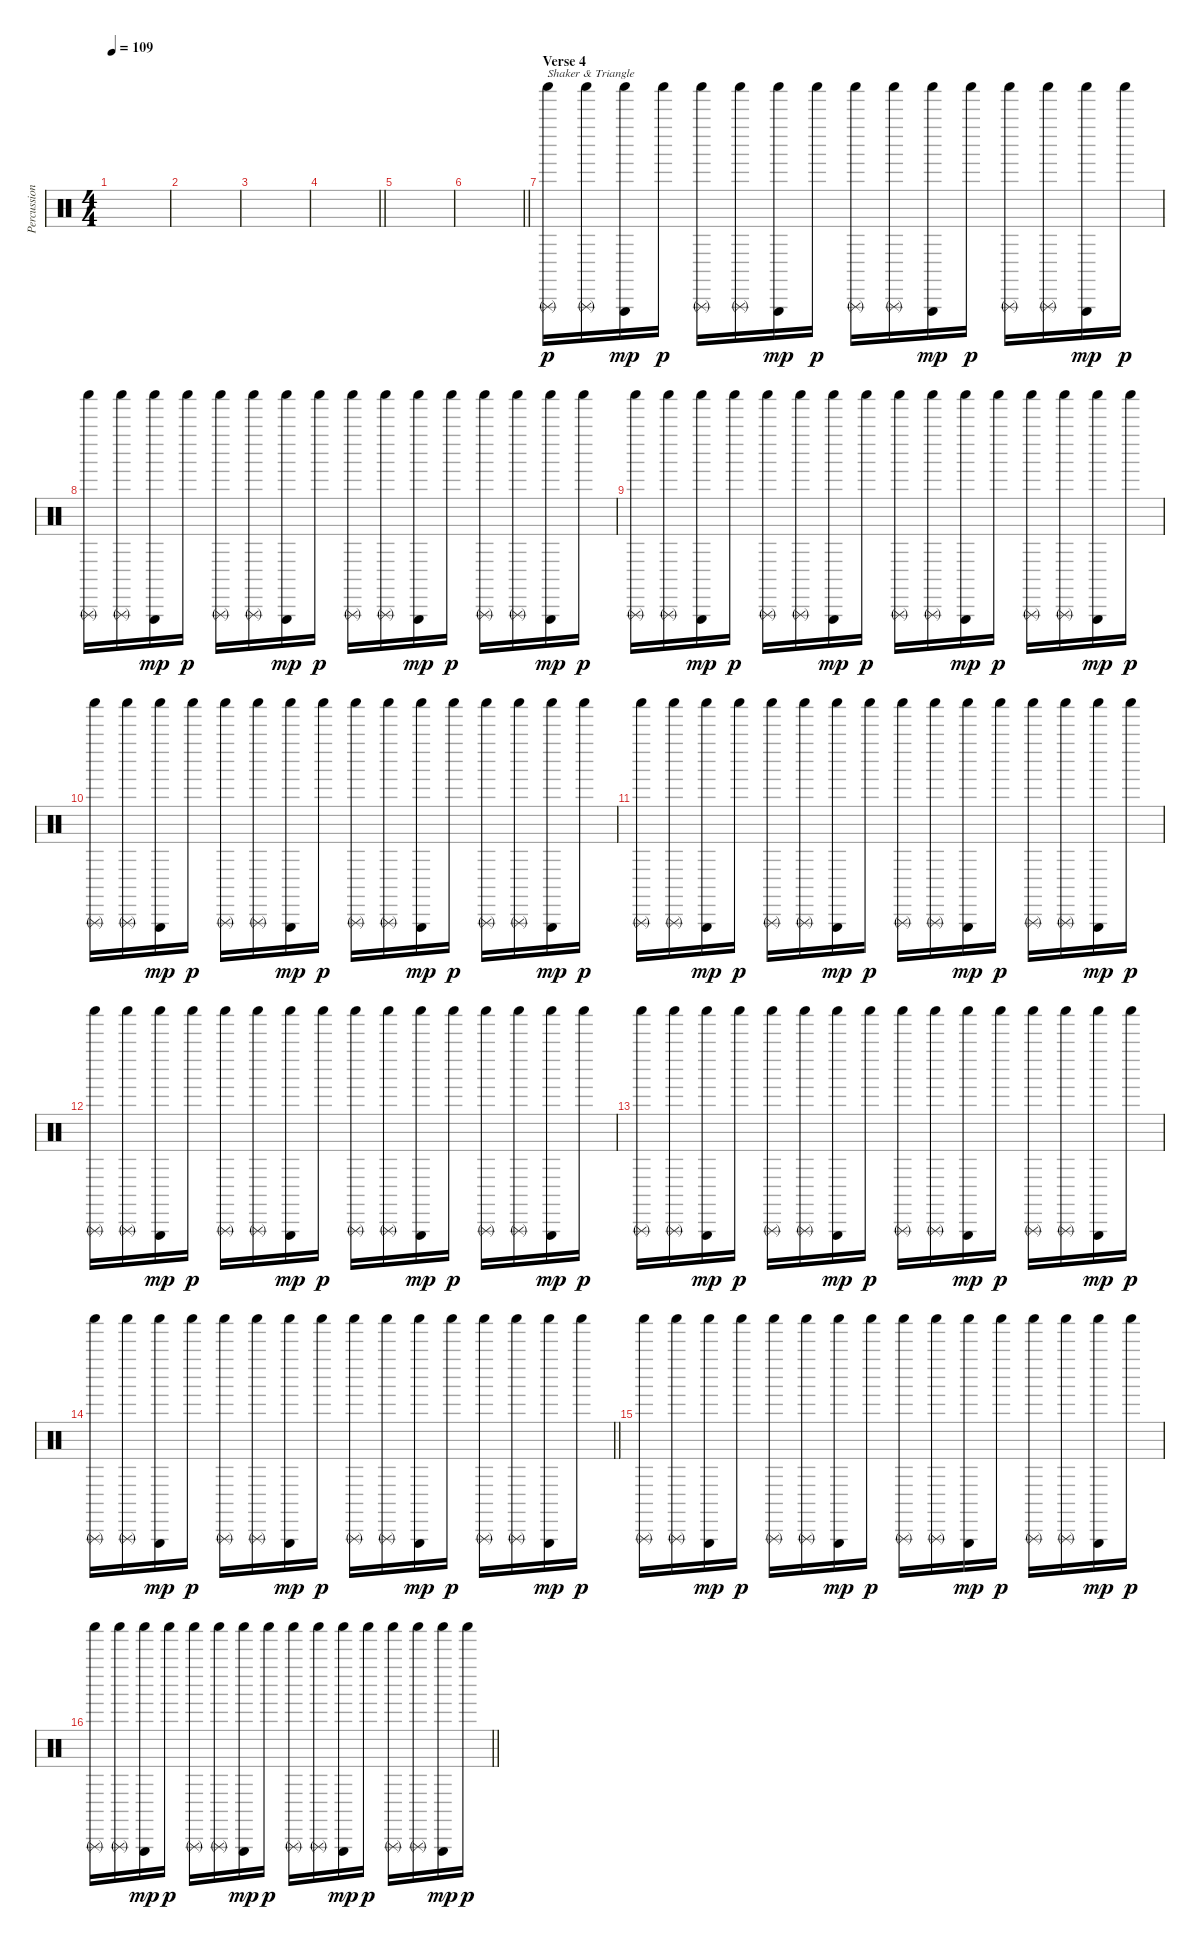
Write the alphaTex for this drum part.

\track ("Percussion (Rick McMurray)" "Percussion") {instrument percussion}
\staff {score}
\articulation defaults
\ts (4 4)
\tempo 109
\clef neutral
\ks c
|
|
|
\barLineRight lightlight
|
|
\barLineRight lightlight
|
\section ("" "Verse 4")
("Shaker (hit)" "Triangle (rnute)").16{txt "Shaker & Triangle" dy p} ("Shaker (hit)" "Triangle (rnute)").16 ("Shaker (hit)" "Triangle (hit)").16{dy mp} "Shaker (hit)".16{dy p} ("Shaker (hit)" "Triangle (rnute)").16 ("Shaker (hit)" "Triangle (rnute)").16 ("Shaker (hit)" "Triangle (hit)").16{dy mp} "Shaker (hit)".16{dy p} ("Shaker (hit)" "Triangle (rnute)").16 ("Shaker (hit)" "Triangle (rnute)").16 ("Shaker (hit)" "Triangle (hit)").16{dy mp} "Shaker (hit)".16{dy p} ("Shaker (hit)" "Triangle (rnute)").16 ("Shaker (hit)" "Triangle (rnute)").16 ("Shaker (hit)" "Triangle (hit)").16{dy mp} "Shaker (hit)".16{dy p} |
("Shaker (hit)" "Triangle (rnute)").16 ("Shaker (hit)" "Triangle (rnute)").16 ("Shaker (hit)" "Triangle (hit)").16{dy mp} "Shaker (hit)".16{dy p} ("Shaker (hit)" "Triangle (rnute)").16 ("Shaker (hit)" "Triangle (rnute)").16 ("Shaker (hit)" "Triangle (hit)").16{dy mp} "Shaker (hit)".16{dy p} ("Shaker (hit)" "Triangle (rnute)").16 ("Shaker (hit)" "Triangle (rnute)").16 ("Shaker (hit)" "Triangle (hit)").16{dy mp} "Shaker (hit)".16{dy p} ("Shaker (hit)" "Triangle (rnute)").16 ("Shaker (hit)" "Triangle (rnute)").16 ("Shaker (hit)" "Triangle (hit)").16{dy mp} "Shaker (hit)".16{dy p} |
("Shaker (hit)" "Triangle (rnute)").16 ("Shaker (hit)" "Triangle (rnute)").16 ("Shaker (hit)" "Triangle (hit)").16{dy mp} "Shaker (hit)".16{dy p} ("Shaker (hit)" "Triangle (rnute)").16 ("Shaker (hit)" "Triangle (rnute)").16 ("Shaker (hit)" "Triangle (hit)").16{dy mp} "Shaker (hit)".16{dy p} ("Shaker (hit)" "Triangle (rnute)").16 ("Shaker (hit)" "Triangle (rnute)").16 ("Shaker (hit)" "Triangle (hit)").16{dy mp} "Shaker (hit)".16{dy p} ("Shaker (hit)" "Triangle (rnute)").16 ("Shaker (hit)" "Triangle (rnute)").16 ("Shaker (hit)" "Triangle (hit)").16{dy mp} "Shaker (hit)".16{dy p} |
("Shaker (hit)" "Triangle (rnute)").16 ("Shaker (hit)" "Triangle (rnute)").16 ("Shaker (hit)" "Triangle (hit)").16{dy mp} "Shaker (hit)".16{dy p} ("Shaker (hit)" "Triangle (rnute)").16 ("Shaker (hit)" "Triangle (rnute)").16 ("Shaker (hit)" "Triangle (hit)").16{dy mp} "Shaker (hit)".16{dy p} ("Shaker (hit)" "Triangle (rnute)").16 ("Shaker (hit)" "Triangle (rnute)").16 ("Shaker (hit)" "Triangle (hit)").16{dy mp} "Shaker (hit)".16{dy p} ("Shaker (hit)" "Triangle (rnute)").16 ("Shaker (hit)" "Triangle (rnute)").16 ("Shaker (hit)" "Triangle (hit)").16{dy mp} "Shaker (hit)".16{dy p} |
("Shaker (hit)" "Triangle (rnute)").16 ("Shaker (hit)" "Triangle (rnute)").16 ("Shaker (hit)" "Triangle (hit)").16{dy mp} "Shaker (hit)".16{dy p} ("Shaker (hit)" "Triangle (rnute)").16 ("Shaker (hit)" "Triangle (rnute)").16 ("Shaker (hit)" "Triangle (hit)").16{dy mp} "Shaker (hit)".16{dy p} ("Shaker (hit)" "Triangle (rnute)").16 ("Shaker (hit)" "Triangle (rnute)").16 ("Shaker (hit)" "Triangle (hit)").16{dy mp} "Shaker (hit)".16{dy p} ("Shaker (hit)" "Triangle (rnute)").16 ("Shaker (hit)" "Triangle (rnute)").16 ("Shaker (hit)" "Triangle (hit)").16{dy mp} "Shaker (hit)".16{dy p} |
("Shaker (hit)" "Triangle (rnute)").16 ("Shaker (hit)" "Triangle (rnute)").16 ("Shaker (hit)" "Triangle (hit)").16{dy mp} "Shaker (hit)".16{dy p} ("Shaker (hit)" "Triangle (rnute)").16 ("Shaker (hit)" "Triangle (rnute)").16 ("Shaker (hit)" "Triangle (hit)").16{dy mp} "Shaker (hit)".16{dy p} ("Shaker (hit)" "Triangle (rnute)").16 ("Shaker (hit)" "Triangle (rnute)").16 ("Shaker (hit)" "Triangle (hit)").16{dy mp} "Shaker (hit)".16{dy p} ("Shaker (hit)" "Triangle (rnute)").16 ("Shaker (hit)" "Triangle (rnute)").16 ("Shaker (hit)" "Triangle (hit)").16{dy mp} "Shaker (hit)".16{dy p} |
("Shaker (hit)" "Triangle (rnute)").16 ("Shaker (hit)" "Triangle (rnute)").16 ("Shaker (hit)" "Triangle (hit)").16{dy mp} "Shaker (hit)".16{dy p} ("Shaker (hit)" "Triangle (rnute)").16 ("Shaker (hit)" "Triangle (rnute)").16 ("Shaker (hit)" "Triangle (hit)").16{dy mp} "Shaker (hit)".16{dy p} ("Shaker (hit)" "Triangle (rnute)").16 ("Shaker (hit)" "Triangle (rnute)").16 ("Shaker (hit)" "Triangle (hit)").16{dy mp} "Shaker (hit)".16{dy p} ("Shaker (hit)" "Triangle (rnute)").16 ("Shaker (hit)" "Triangle (rnute)").16 ("Shaker (hit)" "Triangle (hit)").16{dy mp} "Shaker (hit)".16{dy p} |
\barLineRight lightlight
("Shaker (hit)" "Triangle (rnute)").16 ("Shaker (hit)" "Triangle (rnute)").16 ("Shaker (hit)" "Triangle (hit)").16{dy mp} "Shaker (hit)".16{dy p} ("Shaker (hit)" "Triangle (rnute)").16 ("Shaker (hit)" "Triangle (rnute)").16 ("Shaker (hit)" "Triangle (hit)").16{dy mp} "Shaker (hit)".16{dy p} ("Shaker (hit)" "Triangle (rnute)").16 ("Shaker (hit)" "Triangle (rnute)").16 ("Shaker (hit)" "Triangle (hit)").16{dy mp} "Shaker (hit)".16{dy p} ("Shaker (hit)" "Triangle (rnute)").16 ("Shaker (hit)" "Triangle (rnute)").16 ("Shaker (hit)" "Triangle (hit)").16{dy mp} "Shaker (hit)".16{dy p} |
("Shaker (hit)" "Triangle (rnute)").16 ("Shaker (hit)" "Triangle (rnute)").16 ("Shaker (hit)" "Triangle (hit)").16{dy mp} "Shaker (hit)".16{dy p} ("Shaker (hit)" "Triangle (rnute)").16 ("Shaker (hit)" "Triangle (rnute)").16 ("Shaker (hit)" "Triangle (hit)").16{dy mp} "Shaker (hit)".16{dy p} ("Shaker (hit)" "Triangle (rnute)").16 ("Shaker (hit)" "Triangle (rnute)").16 ("Shaker (hit)" "Triangle (hit)").16{dy mp} "Shaker (hit)".16{dy p} ("Shaker (hit)" "Triangle (rnute)").16 ("Shaker (hit)" "Triangle (rnute)").16 ("Shaker (hit)" "Triangle (hit)").16{dy mp} "Shaker (hit)".16{dy p} |
\barLineRight lightlight
("Shaker (hit)" "Triangle (rnute)").16 ("Shaker (hit)" "Triangle (rnute)").16 ("Shaker (hit)" "Triangle (hit)").16{dy mp} "Shaker (hit)".16{dy p} ("Shaker (hit)" "Triangle (rnute)").16 ("Shaker (hit)" "Triangle (rnute)").16 ("Shaker (hit)" "Triangle (hit)").16{dy mp} "Shaker (hit)".16{dy p} ("Shaker (hit)" "Triangle (rnute)").16 ("Shaker (hit)" "Triangle (rnute)").16 ("Shaker (hit)" "Triangle (hit)").16{dy mp} "Shaker (hit)".16{dy p} ("Shaker (hit)" "Triangle (rnute)").16 ("Shaker (hit)" "Triangle (rnute)").16 ("Shaker (hit)" "Triangle (hit)").16{dy mp} "Shaker (hit)".16{dy p}
